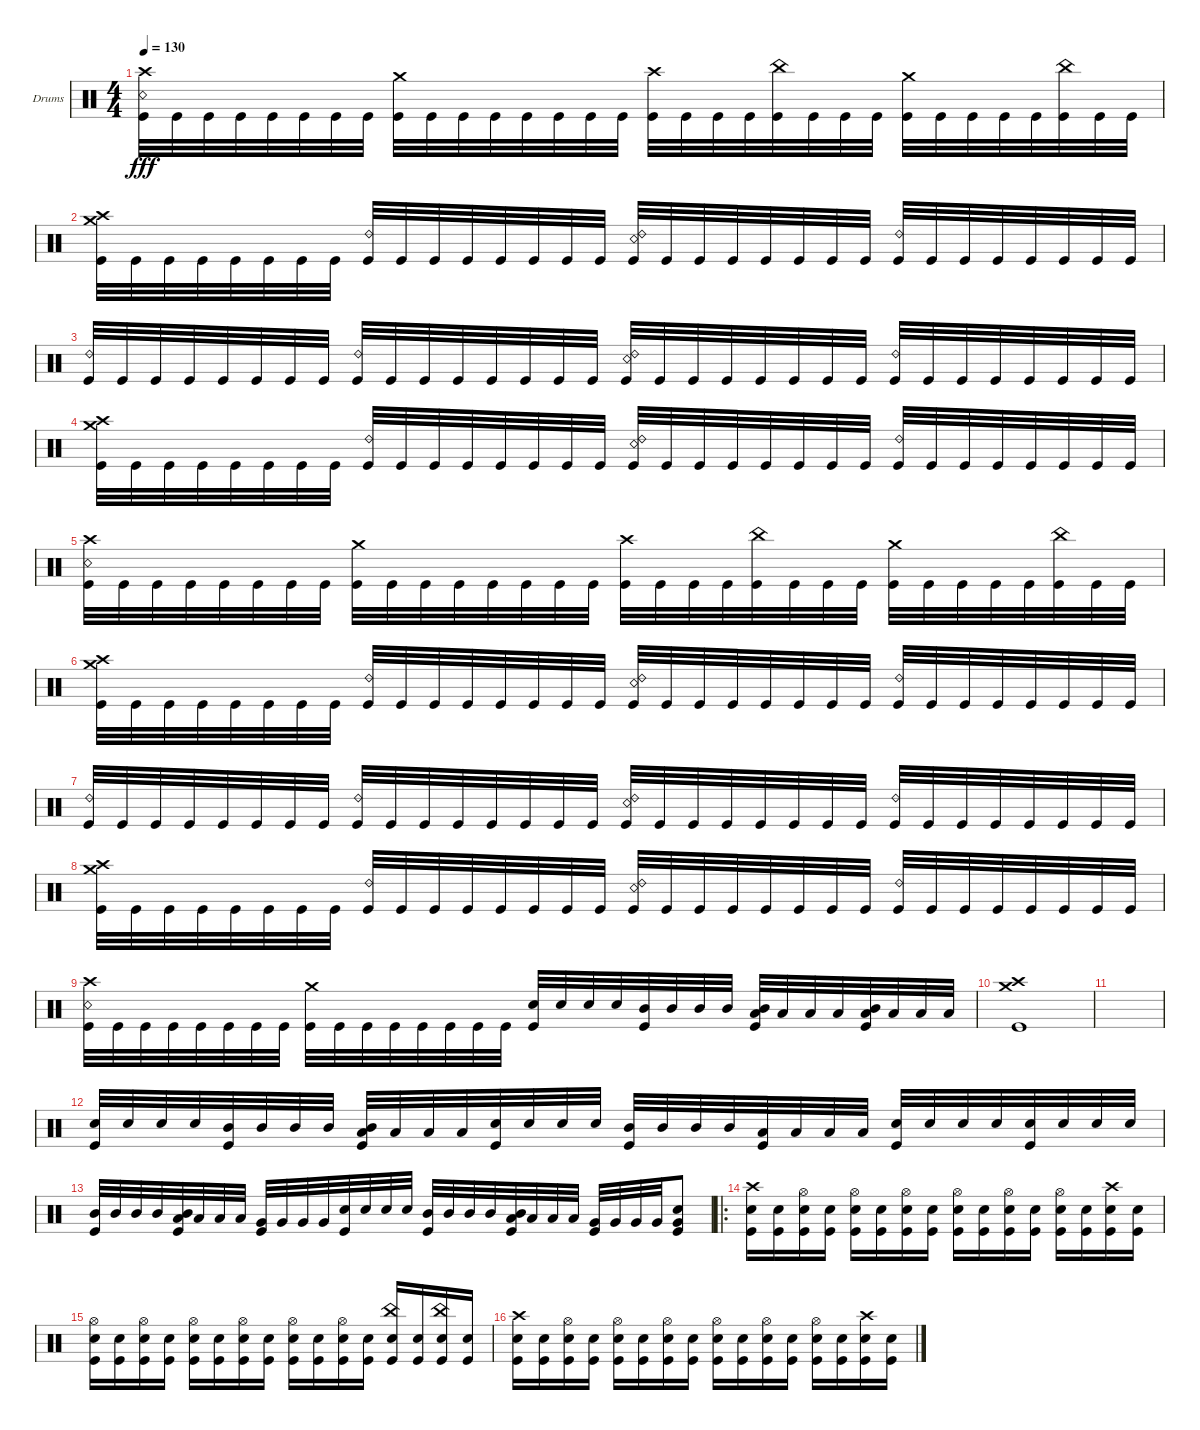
\bracketExtendMode groupsimilarinstruments
\firstSystemTrackNameOrientation horizontal
\otherSystemsTrackNameOrientation horizontal
\track ("Drumkit" "Drums") {instrument percussion}
\staff {score}
\articulation defaults
\ts (4 4)
\tempo 130
\clef neutral
\ks c
("Kick (hit)" "Snare (rim shot)" "Crash high (hit)").32{dy fff} "Kick (hit)".32 "Kick (hit)".32 "Kick (hit)".32 "Kick (hit)".32 "Kick (hit)".32 "Kick (hit)".32 "Kick (hit)".32 ("Kick (hit)" "Crash medium (hit)").32 "Kick (hit)".32 "Kick (hit)".32 "Kick (hit)".32 "Kick (hit)".32 "Kick (hit)".32 "Kick (hit)".32 "Kick (hit)".32 ("Kick (hit)" "Crash high (hit)").32 "Kick (hit)".32 "Kick (hit)".32 "Kick (hit)".32 ("Kick (hit)" "China (hit)").32 "Kick (hit)".32 "Kick (hit)".32 "Kick (hit)".32 ("Kick (hit)" "Crash medium (hit)").32 "Kick (hit)".32 "Kick (hit)".32 "Kick (hit)".32 "Kick (hit)".32 ("Kick (hit)" "China (hit)").32 "Kick (hit)".32 "Kick (hit)".32 |
\scale
0.333333 ("Kick (hit)" "Crash high (hit)" "Crash medium (hit)").32 "Kick (hit)".32 "Kick (hit)".32 "Kick (hit)".32 "Kick (hit)".32 "Kick (hit)".32 "Kick (hit)".32 "Kick (hit)".32 ("Kick (hit)" "Ride (bell) 2").32 "Kick (hit)".32 "Kick (hit)".32 "Kick (hit)".32 "Kick (hit)".32 "Kick (hit)".32 "Kick (hit)".32 "Kick (hit)".32 ("Kick (hit)" "Ride (bell) 2" "Snare (rim shot)").32 "Kick (hit)".32 "Kick (hit)".32 "Kick (hit)".32 "Kick (hit)".32 "Kick (hit)".32 "Kick (hit)".32 "Kick (hit)".32 ("Kick (hit)" "Ride (bell) 2").32 "Kick (hit)".32 "Kick (hit)".32 "Kick (hit)".32 "Kick (hit)".32 "Kick (hit)".32 "Kick (hit)".32 "Kick (hit)".32 |
\scale
0.333333 ("Kick (hit)" "Ride (bell) 2").32 "Kick (hit)".32 "Kick (hit)".32 "Kick (hit)".32 "Kick (hit)".32 "Kick (hit)".32 "Kick (hit)".32 "Kick (hit)".32 ("Kick (hit)" "Ride (bell) 2").32 "Kick (hit)".32 "Kick (hit)".32 "Kick (hit)".32 "Kick (hit)".32 "Kick (hit)".32 "Kick (hit)".32 "Kick (hit)".32 ("Kick (hit)" "Ride (bell) 2" "Snare (rim shot)").32 "Kick (hit)".32 "Kick (hit)".32 "Kick (hit)".32 "Kick (hit)".32 "Kick (hit)".32 "Kick (hit)".32 "Kick (hit)".32 ("Kick (hit)" "Ride (bell) 2").32 "Kick (hit)".32 "Kick (hit)".32 "Kick (hit)".32 "Kick (hit)".32 "Kick (hit)".32 "Kick (hit)".32 "Kick (hit)".32 |
\scale
0.333333 ("Kick (hit)" "Crash high (hit)" "Crash medium (hit)").32 "Kick (hit)".32 "Kick (hit)".32 "Kick (hit)".32 "Kick (hit)".32 "Kick (hit)".32 "Kick (hit)".32 "Kick (hit)".32 ("Kick (hit)" "Ride (bell) 2").32 "Kick (hit)".32 "Kick (hit)".32 "Kick (hit)".32 "Kick (hit)".32 "Kick (hit)".32 "Kick (hit)".32 "Kick (hit)".32 ("Kick (hit)" "Ride (bell) 2" "Snare (rim shot)").32 "Kick (hit)".32 "Kick (hit)".32 "Kick (hit)".32 "Kick (hit)".32 "Kick (hit)".32 "Kick (hit)".32 "Kick (hit)".32 ("Kick (hit)" "Ride (bell) 2").32 "Kick (hit)".32 "Kick (hit)".32 "Kick (hit)".32 "Kick (hit)".32 "Kick (hit)".32 "Kick (hit)".32 "Kick (hit)".32 |
\scale
0.333333 ("Kick (hit)" "Snare (rim shot)" "Crash high (hit)").32 "Kick (hit)".32 "Kick (hit)".32 "Kick (hit)".32 "Kick (hit)".32 "Kick (hit)".32 "Kick (hit)".32 "Kick (hit)".32 ("Kick (hit)" "Crash medium (hit)").32 "Kick (hit)".32 "Kick (hit)".32 "Kick (hit)".32 "Kick (hit)".32 "Kick (hit)".32 "Kick (hit)".32 "Kick (hit)".32 ("Kick (hit)" "Crash high (hit)").32 "Kick (hit)".32 "Kick (hit)".32 "Kick (hit)".32 ("Kick (hit)" "China (hit)").32 "Kick (hit)".32 "Kick (hit)".32 "Kick (hit)".32 ("Kick (hit)" "Crash medium (hit)").32 "Kick (hit)".32 "Kick (hit)".32 "Kick (hit)".32 "Kick (hit)".32 ("Kick (hit)" "China (hit)").32 "Kick (hit)".32 "Kick (hit)".32 |
\scale
0.333333 ("Kick (hit)" "Crash high (hit)" "Crash medium (hit)").32 "Kick (hit)".32 "Kick (hit)".32 "Kick (hit)".32 "Kick (hit)".32 "Kick (hit)".32 "Kick (hit)".32 "Kick (hit)".32 ("Kick (hit)" "Ride (bell) 2").32 "Kick (hit)".32 "Kick (hit)".32 "Kick (hit)".32 "Kick (hit)".32 "Kick (hit)".32 "Kick (hit)".32 "Kick (hit)".32 ("Kick (hit)" "Ride (bell) 2" "Snare (rim shot)").32 "Kick (hit)".32 "Kick (hit)".32 "Kick (hit)".32 "Kick (hit)".32 "Kick (hit)".32 "Kick (hit)".32 "Kick (hit)".32 ("Kick (hit)" "Ride (bell) 2").32 "Kick (hit)".32 "Kick (hit)".32 "Kick (hit)".32 "Kick (hit)".32 "Kick (hit)".32 "Kick (hit)".32 "Kick (hit)".32 |
\scale
0.333333 ("Kick (hit)" "Ride (bell) 2").32 "Kick (hit)".32 "Kick (hit)".32 "Kick (hit)".32 "Kick (hit)".32 "Kick (hit)".32 "Kick (hit)".32 "Kick (hit)".32 ("Kick (hit)" "Ride (bell) 2").32 "Kick (hit)".32 "Kick (hit)".32 "Kick (hit)".32 "Kick (hit)".32 "Kick (hit)".32 "Kick (hit)".32 "Kick (hit)".32 ("Kick (hit)" "Ride (bell) 2" "Snare (rim shot)").32 "Kick (hit)".32 "Kick (hit)".32 "Kick (hit)".32 "Kick (hit)".32 "Kick (hit)".32 "Kick (hit)".32 "Kick (hit)".32 ("Kick (hit)" "Ride (bell) 2").32 "Kick (hit)".32 "Kick (hit)".32 "Kick (hit)".32 "Kick (hit)".32 "Kick (hit)".32 "Kick (hit)".32 "Kick (hit)".32 |
\scale
0.333333 ("Kick (hit)" "Crash high (hit)" "Crash medium (hit)").32 "Kick (hit)".32 "Kick (hit)".32 "Kick (hit)".32 "Kick (hit)".32 "Kick (hit)".32 "Kick (hit)".32 "Kick (hit)".32 ("Kick (hit)" "Ride (bell) 2").32 "Kick (hit)".32 "Kick (hit)".32 "Kick (hit)".32 "Kick (hit)".32 "Kick (hit)".32 "Kick (hit)".32 "Kick (hit)".32 ("Kick (hit)" "Ride (bell) 2" "Snare (rim shot)").32 "Kick (hit)".32 "Kick (hit)".32 "Kick (hit)".32 "Kick (hit)".32 "Kick (hit)".32 "Kick (hit)".32 "Kick (hit)".32 ("Kick (hit)" "Ride (bell) 2").32 "Kick (hit)".32 "Kick (hit)".32 "Kick (hit)".32 "Kick (hit)".32 "Kick (hit)".32 "Kick (hit)".32 "Kick (hit)".32 |
\scale
0.333333 ("Kick (hit)" "Snare (rim shot)" "Crash high (hit)").32 "Kick (hit)".32 "Kick (hit)".32 "Kick (hit)".32 "Kick (hit)".32 "Kick (hit)".32 "Kick (hit)".32 "Kick (hit)".32 ("Kick (hit)" "Crash medium (hit)").32 "Kick (hit)".32 "Kick (hit)".32 "Kick (hit)".32 "Kick (hit)".32 "Kick (hit)".32 "Kick (hit)".32 "Kick (hit)".32 ("Kick (hit)" "Snare (hit) 2").32 "Snare (hit) 2".32 "Snare (hit) 2".32 "Snare (hit) 2".32 ("Kick (hit)" "Mid Tom (hit)").32 "Mid Tom (hit)".32 "Mid Tom (hit)".32 "Mid Tom (hit)".32 ("Kick (hit)" "Mid Tom (hit)" "Low Tom (hit)").32 "Low Tom (hit)".32 "Low Tom (hit)".32 "Low Tom (hit)".32 ("Kick (hit)" "Mid Tom (hit)" "Low Tom (hit)").32 "Low Tom (hit)".32 "Low Tom (hit)".32 "Low Tom (hit)".32 |
\scale
0.333333 ("Kick (hit)" "Crash high (hit)" "Crash medium (hit)").1 |
\scale
0.333333 |
\scale
0.333333 ("Kick (hit)" "Snare (hit) 2").32 "Snare (hit) 2".32 "Snare (hit) 2".32 "Snare (hit) 2".32 ("Kick (hit)" "Mid Tom (hit)").32 "Mid Tom (hit)".32 "Mid Tom (hit)".32 "Mid Tom (hit)".32 ("Kick (hit)" "Mid Tom (hit)" "Low Tom (hit)").32 "Low Tom (hit)".32 "Low Tom (hit)".32 "Low Tom (hit)".32 ("Kick (hit)" "Snare (hit) 2").32 "Snare (hit) 2".32 "Snare (hit) 2".32 "Snare (hit) 2".32 ("Kick (hit)" "Mid Tom (hit)").32 "Mid Tom (hit)".32 "Mid Tom (hit)".32 "Mid Tom (hit)".32 ("Kick (hit)" "Low Tom (hit)").32 "Low Tom (hit)".32 "Low Tom (hit)".32 "Low Tom (hit)".32 ("Kick (hit)" "Snare (hit) 2").32 "Snare (hit) 2".32 "Snare (hit) 2".32 "Snare (hit) 2".32 ("Kick (hit)" "Snare (hit) 2").32 "Snare (hit) 2".32 "Snare (hit) 2".32 "Snare (hit) 2".32 |
\scale
0.311111 ("Kick (hit)" "Mid Tom (hit)").32 "Mid Tom (hit)".32 "Mid Tom (hit)".32 "Mid Tom (hit)".32 ("Kick (hit)" "Mid Tom (hit)" "Low Tom (hit)").32 "Low Tom (hit)".32 "Low Tom (hit)".32 "Low Tom (hit)".32 ("Very Low Tom (hit)" "Kick (hit)").32 "Very Low Tom (hit)".32 "Very Low Tom (hit)".32 "Very Low Tom (hit)".32 ("Kick (hit)" "Snare (hit) 2").32 "Snare (hit) 2".32 "Snare (hit) 2".32 "Snare (hit) 2".32 ("Kick (hit)" "Mid Tom (hit)").32 "Mid Tom (hit)".32 "Mid Tom (hit)".32 "Mid Tom (hit)".32 ("Kick (hit)" "Mid Tom (hit)" "Low Tom (hit)").32 "Low Tom (hit)".32 "Low Tom (hit)".32 "Low Tom (hit)".32 ("Very Low Tom (hit)" "Kick (hit)").32 "Very Low Tom (hit)".32 "Very Low Tom (hit)".32 "Very Low Tom (hit)".32 ("Snare (hit) 2" "Very Low Tom (hit)" "Kick (hit)").8 |
\ro
\scale
0.377778 ("Snare (hit) 2" "Kick (hit)" "Crash high (hit)").16 ("Snare (hit) 2" "Kick (hit)").16 ("Snare (hit) 2" "Kick (hit)" "Hi-Hat (open)").16 ("Snare (hit) 2" "Kick (hit)").16 ("Snare (hit) 2" "Kick (hit)" "Hi-Hat (open)").16 ("Snare (hit) 2" "Kick (hit)").16 ("Snare (hit) 2" "Kick (hit)" "Hi-Hat (open)").16 ("Snare (hit) 2" "Kick (hit)").16 ("Snare (hit) 2" "Kick (hit)" "Hi-Hat (open)").16 ("Snare (hit) 2" "Kick (hit)").16 ("Snare (hit) 2" "Kick (hit)" "Hi-Hat (open)").16 ("Snare (hit) 2" "Kick (hit)").16 ("Snare (hit) 2" "Kick (hit)" "Hi-Hat (open)").16 ("Snare (hit) 2" "Kick (hit)").16 ("Snare (hit) 2" "Kick (hit)" "Crash high (hit)").16 ("Snare (hit) 2" "Kick (hit)").16 |
\scale
0.311111 ("Snare (hit) 2" "Kick (hit)" "Hi-Hat (open)").16 ("Snare (hit) 2" "Kick (hit)").16 ("Snare (hit) 2" "Kick (hit)" "Hi-Hat (open)").16 ("Snare (hit) 2" "Kick (hit)").16 ("Snare (hit) 2" "Kick (hit)" "Hi-Hat (open)").16 ("Snare (hit) 2" "Kick (hit)").16 ("Snare (hit) 2" "Kick (hit)" "Hi-Hat (open)").16 ("Snare (hit) 2" "Kick (hit)").16 ("Snare (hit) 2" "Kick (hit)" "Hi-Hat (open)").16 ("Snare (hit) 2" "Kick (hit)").16 ("Snare (hit) 2" "Kick (hit)" "Hi-Hat (open)").16 ("Snare (hit) 2" "Kick (hit)").16 ("Snare (hit) 2" "Kick (hit)" "China (hit)").16 ("Snare (hit) 2" "Kick (hit)").16 ("Snare (hit) 2" "Kick (hit)" "China (hit)").16 ("Snare (hit) 2" "Kick (hit)").16 |
\scale
0.321839 ("Snare (hit) 2" "Kick (hit)" "Crash high (hit)").16 ("Snare (hit) 2" "Kick (hit)").16 ("Snare (hit) 2" "Kick (hit)" "Hi-Hat (open)").16 ("Snare (hit) 2" "Kick (hit)").16 ("Snare (hit) 2" "Kick (hit)" "Hi-Hat (open)").16 ("Snare (hit) 2" "Kick (hit)").16 ("Snare (hit) 2" "Kick (hit)" "Hi-Hat (open)").16 ("Snare (hit) 2" "Kick (hit)").16 ("Snare (hit) 2" "Kick (hit)" "Hi-Hat (open)").16 ("Snare (hit) 2" "Kick (hit)").16 ("Snare (hit) 2" "Kick (hit)" "Hi-Hat (open)").16 ("Snare (hit) 2" "Kick (hit)").16 ("Snare (hit) 2" "Kick (hit)" "Hi-Hat (open)").16 ("Snare (hit) 2" "Kick (hit)").16 ("Snare (hit) 2" "Kick (hit)" "Crash high (hit)").16 ("Snare (hit) 2" "Kick (hit)").16
